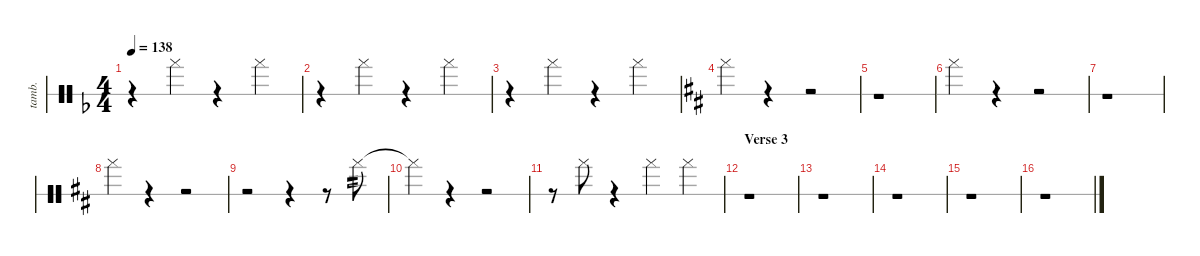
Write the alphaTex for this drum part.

\hideDynamics
\bracketExtendMode groupsimilarinstruments
\otherSystemsTrackNameOrientation horizontal
\track ("Tambourine" "tamb.") {instrument percussion}
\staff {score 1}
\articulation defaults
\ts (4 4)
\tempo 138
\clef neutral
\ks f
r.4{dy mf} "Tambourine (hand)"{acc forcenatural}.4 r.4 "Tambourine (hand)"{acc forcenatural}.4 |
r.4 "Tambourine (hand)"{acc forcenatural}.4 r.4 "Tambourine (hand)"{acc forcenatural}.4 |
r.4 "Tambourine (hand)"{acc forcenatural}.4 r.4 "Tambourine (hand)"{acc forcenatural}.4 |
\ks d "Tambourine (hand)"{acc forcenatural}.4
r.4 r.2 |
r.1 |
"Tambourine (hand)"{acc forcenatural}.4 r.4 r.2 |
r.1 |
"Tambourine (hand)"{acc forcenatural}.4{dy p} r.4 r.2 |
r.2 r.4 r.8 "Tambourine (hand)"{acc forcenatural}.8{tp 2 dy mf} |
"Tambourine (hand)"{t acc forcenatural}.4 r.4 r.2 |
r.8 "Tambourine (hand)"{acc forcenatural}.8 r.4 "Tambourine (hand)"{acc forcenatural}.4 "Tambourine (hand)"{acc forcenatural}.4 |
\section ("" "Verse 3")
r.1 |
r.1 |
r.1 |
r.1 |
r.1
